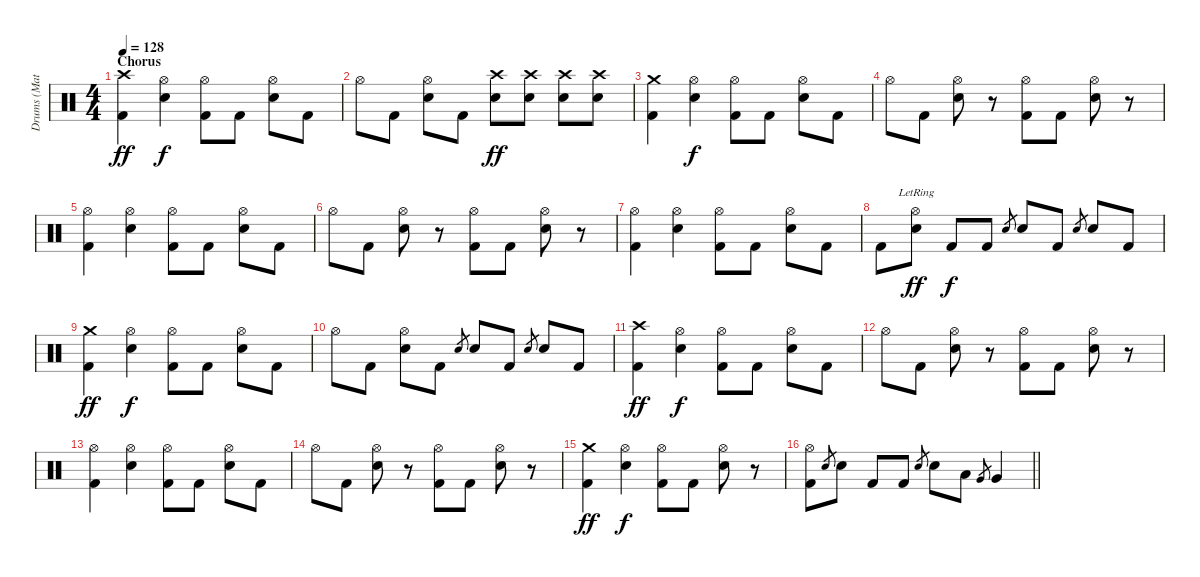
\track ("Drums (Matt Sorum)" "Drums (Mat") {instrument percussion}
\staff {score}
\articulation defaults
\ts (4 4)
\section ("" "Chorus")
\tempo 128
\clef neutral
\ks c
("Crash high (hit)" "Kick (hit) 2").4{dy ff} ("Hi-Hat (open)" "Snare (hit) 2").4{dy f} ("Hi-Hat (open)" "Kick (hit) 2").8 "Kick (hit) 2".8 ("Hi-Hat (open)" "Snare (hit) 2").8 "Kick (hit) 2".8 |
"Hi-Hat (open)".8 "Kick (hit) 2".8 ("Hi-Hat (open)" "Snare (hit) 2").8 "Kick (hit) 2".8 ("Crash high (hit)" "Snare (hit) 2").8{dy ff} ("Crash high (hit)" "Snare (hit) 2").8 ("Crash high (hit)" "Snare (hit) 2").8 ("Crash high (hit)" "Snare (hit) 2").8 |
("Crash medium (hit)" "Kick (hit) 2").4 ("Hi-Hat (open)" "Snare (hit) 2").4{dy f} ("Hi-Hat (open)" "Kick (hit) 2").8 "Kick (hit) 2".8 ("Hi-Hat (open)" "Snare (hit) 2").8 "Kick (hit) 2".8 |
"Hi-Hat (open)".8 "Kick (hit) 2".8 ("Hi-Hat (open)" "Snare (hit) 2").8 r.8 ("Hi-Hat (open)" "Kick (hit) 2").8 "Kick (hit) 2".8 ("Hi-Hat (open)" "Snare (hit) 2").8 r.8 |
("Hi-Hat (open)" "Kick (hit) 2").4 ("Hi-Hat (open)" "Snare (hit) 2").4 ("Hi-Hat (open)" "Kick (hit) 2").8 "Kick (hit) 2".8 ("Hi-Hat (open)" "Snare (hit) 2").8 "Kick (hit) 2".8 |
"Hi-Hat (open)".8 "Kick (hit) 2".8 ("Hi-Hat (open)" "Snare (hit) 2").8 r.8 ("Hi-Hat (open)" "Kick (hit) 2").8 "Kick (hit) 2".8 ("Hi-Hat (open)" "Snare (hit) 2").8 r.8 |
("Hi-Hat (open)" "Kick (hit) 2").4 ("Hi-Hat (open)" "Snare (hit) 2").4 ("Hi-Hat (open)" "Kick (hit) 2").8 "Kick (hit) 2".8 ("Hi-Hat (open)" "Snare (hit) 2").8 "Kick (hit) 2".8 |
"Kick (hit) 2".8 ("Hi-Hat (open)"{lr} "Snare (hit) 2").8{dy ff} "Kick (hit) 2".8{dy f} "Kick (hit) 2".8 "Snare (hit) 2".8{gr} "Snare (hit) 2".8 "Kick (hit) 2".8 "Snare (hit) 2".8{gr} "Snare (hit) 2".8 "Kick (hit) 2".8 |
("Crash medium (hit)" "Kick (hit) 2").4{dy ff} ("Hi-Hat (open)" "Snare (hit) 2").4{dy f} ("Hi-Hat (open)" "Kick (hit) 2").8 "Kick (hit) 2".8 ("Hi-Hat (open)" "Snare (hit) 2").8 "Kick (hit) 2".8 |
"Hi-Hat (open)".8 "Kick (hit) 2".8 ("Hi-Hat (open)" "Snare (hit) 2").8 "Kick (hit) 2".8 "Snare (hit) 2".8{gr} "Snare (hit) 2".8 "Kick (hit) 2".8 "Snare (hit) 2".8{gr} "Snare (hit) 2".8 "Kick (hit) 2".8 |
("Crash high (hit)" "Kick (hit) 2").4{dy ff} ("Hi-Hat (open)" "Snare (hit) 2").4{dy f} ("Hi-Hat (open)" "Kick (hit) 2").8 "Kick (hit) 2".8 ("Hi-Hat (open)" "Snare (hit) 2").8 "Kick (hit) 2".8 |
"Hi-Hat (open)".8 "Kick (hit) 2".8 ("Hi-Hat (open)" "Snare (hit) 2").8 r.8 ("Hi-Hat (open)" "Kick (hit) 2").8 "Kick (hit) 2".8 ("Hi-Hat (open)" "Snare (hit) 2").8 r.8 |
("Hi-Hat (open)" "Kick (hit) 2").4 ("Hi-Hat (open)" "Snare (hit) 2").4 ("Hi-Hat (open)" "Kick (hit) 2").8 "Kick (hit) 2".8 ("Hi-Hat (open)" "Snare (hit) 2").8 "Kick (hit) 2".8 |
"Hi-Hat (open)".8 "Kick (hit) 2".8 ("Hi-Hat (open)" "Snare (hit) 2").8 r.8 ("Hi-Hat (open)" "Kick (hit) 2").8 "Kick (hit) 2".8 ("Hi-Hat (open)" "Snare (hit) 2").8 r.8 |
("Crash medium (hit)" "Kick (hit) 2").4{dy ff} ("Hi-Hat (open)" "Snare (hit) 2").4{dy f} ("Hi-Hat (open)" "Kick (hit) 2").8 "Kick (hit) 2".8 ("Hi-Hat (open)" "Snare (hit) 2").8 r.8 |
\barLineRight lightlight
("Hi-Hat (open)" "Kick (hit) 2").8 "Snare (hit) 2".8{gr} "Snare (hit) 2".8 "Kick (hit) 2".8 "Kick (hit) 2".8 "Snare (hit) 2".8{gr} "Snare (hit) 2".8 "Low Tom (hit)".8 "Very Low Tom (hit)".8{gr} "Very Low Tom (hit)".4
